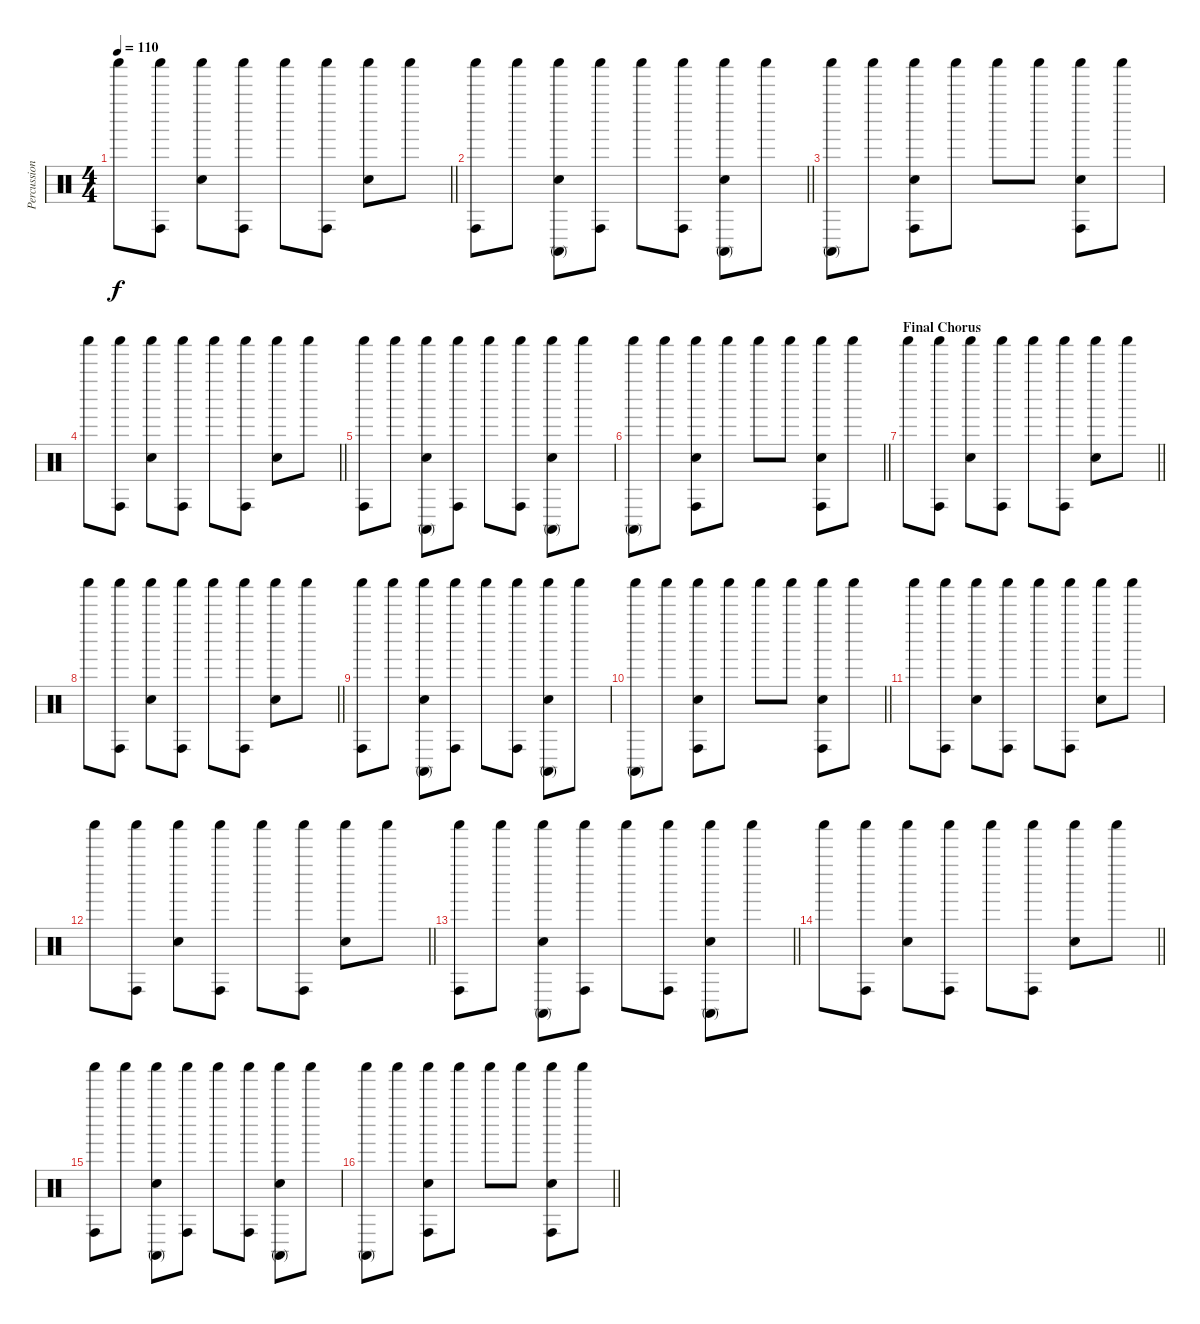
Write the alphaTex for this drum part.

\track ("Percussion" "Percussion") {instrument percussion}
\staff {score}
\articulation defaults
\ts (4 4)
\tempo 110
\clef neutral
\barLineRight lightlight
\ks c "Shaker (hit)".8{dy f}
("Conga high (hit)" "Shaker (hit)").8 ("Hand Clap (hit)" "Shaker (hit)").8 ("Conga high (hit)" "Shaker (hit)").8 "Shaker (hit)".8 ("Conga high (hit)" "Shaker (hit)").8 ("Hand Clap (hit)" "Shaker (hit)").8 "Shaker (hit)".8 |
\barLineRight lightlight
("Conga high (hit)" "Shaker (hit)").8 "Shaker (hit)".8 ("Conga high (mute)" "Hand Clap (hit)" "Shaker (hit)").8 ("Conga high (hit)" "Shaker (hit)").8 "Shaker (hit)".8 ("Conga high (hit)" "Shaker (hit)").8 ("Conga high (mute)" "Hand Clap (hit)" "Shaker (hit)").8 "Shaker (hit)".8 |
("Conga high (mute)" "Shaker (hit)").8 "Shaker (hit)".8 ("Conga high (hit)" "Hand Clap (hit)" "Shaker (hit)").8 "Shaker (hit)".8 "Shaker (hit)".8 "Shaker (hit)".8 ("Conga high (hit)" "Hand Clap (hit)" "Shaker (hit)").8 "Shaker (hit)".8 |
\barLineRight lightlight "Shaker (hit)".8
("Conga high (hit)" "Shaker (hit)").8 ("Hand Clap (hit)" "Shaker (hit)").8 ("Conga high (hit)" "Shaker (hit)").8 "Shaker (hit)".8 ("Conga high (hit)" "Shaker (hit)").8 ("Hand Clap (hit)" "Shaker (hit)").8 "Shaker (hit)".8 |
("Conga high (hit)" "Shaker (hit)").8 "Shaker (hit)".8 ("Conga high (mute)" "Hand Clap (hit)" "Shaker (hit)").8 ("Conga high (hit)" "Shaker (hit)").8 "Shaker (hit)".8 ("Conga high (hit)" "Shaker (hit)").8 ("Conga high (mute)" "Hand Clap (hit)" "Shaker (hit)").8 "Shaker (hit)".8 |
\barLineRight lightlight
("Conga high (mute)" "Shaker (hit)").8 "Shaker (hit)".8 ("Conga high (hit)" "Hand Clap (hit)" "Shaker (hit)").8 "Shaker (hit)".8 "Shaker (hit)".8 "Shaker (hit)".8 ("Conga high (hit)" "Hand Clap (hit)" "Shaker (hit)").8 "Shaker (hit)".8 |
\section ("" "Final Chorus")
\barLineRight lightlight "Shaker (hit)".8
("Conga high (hit)" "Shaker (hit)").8 ("Hand Clap (hit)" "Shaker (hit)").8 ("Conga high (hit)" "Shaker (hit)").8 "Shaker (hit)".8 ("Conga high (hit)" "Shaker (hit)").8 ("Hand Clap (hit)" "Shaker (hit)").8 "Shaker (hit)".8 |
\barLineRight lightlight "Shaker (hit)".8
("Conga high (hit)" "Shaker (hit)").8 ("Hand Clap (hit)" "Shaker (hit)").8 ("Conga high (hit)" "Shaker (hit)").8 "Shaker (hit)".8 ("Conga high (hit)" "Shaker (hit)").8 ("Hand Clap (hit)" "Shaker (hit)").8 "Shaker (hit)".8 |
("Conga high (hit)" "Shaker (hit)").8 "Shaker (hit)".8 ("Conga high (mute)" "Hand Clap (hit)" "Shaker (hit)").8 ("Conga high (hit)" "Shaker (hit)").8 "Shaker (hit)".8 ("Conga high (hit)" "Shaker (hit)").8 ("Conga high (mute)" "Hand Clap (hit)" "Shaker (hit)").8 "Shaker (hit)".8 |
\barLineRight lightlight
("Conga high (mute)" "Shaker (hit)").8 "Shaker (hit)".8 ("Conga high (hit)" "Hand Clap (hit)" "Shaker (hit)").8 "Shaker (hit)".8 "Shaker (hit)".8 "Shaker (hit)".8 ("Conga high (hit)" "Hand Clap (hit)" "Shaker (hit)").8 "Shaker (hit)".8 |
"Shaker (hit)".8 ("Conga high (hit)" "Shaker (hit)").8 ("Hand Clap (hit)" "Shaker (hit)").8 ("Conga high (hit)" "Shaker (hit)").8 "Shaker (hit)".8 ("Conga high (hit)" "Shaker (hit)").8 ("Hand Clap (hit)" "Shaker (hit)").8 "Shaker (hit)".8 |
\barLineRight lightlight "Shaker (hit)".8
("Conga high (hit)" "Shaker (hit)").8 ("Hand Clap (hit)" "Shaker (hit)").8 ("Conga high (hit)" "Shaker (hit)").8 "Shaker (hit)".8 ("Conga high (hit)" "Shaker (hit)").8 ("Hand Clap (hit)" "Shaker (hit)").8 "Shaker (hit)".8 |
\barLineRight lightlight
("Conga high (hit)" "Shaker (hit)").8 "Shaker (hit)".8 ("Conga high (mute)" "Hand Clap (hit)" "Shaker (hit)").8 ("Conga high (hit)" "Shaker (hit)").8 "Shaker (hit)".8 ("Conga high (hit)" "Shaker (hit)").8 ("Conga high (mute)" "Hand Clap (hit)" "Shaker (hit)").8 "Shaker (hit)".8 |
\barLineRight lightlight "Shaker (hit)".8
("Conga high (hit)" "Shaker (hit)").8 ("Hand Clap (hit)" "Shaker (hit)").8 ("Conga high (hit)" "Shaker (hit)").8 "Shaker (hit)".8 ("Conga high (hit)" "Shaker (hit)").8 ("Hand Clap (hit)" "Shaker (hit)").8 "Shaker (hit)".8 |
("Conga high (hit)" "Shaker (hit)").8 "Shaker (hit)".8 ("Conga high (mute)" "Hand Clap (hit)" "Shaker (hit)").8 ("Conga high (hit)" "Shaker (hit)").8 "Shaker (hit)".8 ("Conga high (hit)" "Shaker (hit)").8 ("Conga high (mute)" "Hand Clap (hit)" "Shaker (hit)").8 "Shaker (hit)".8 |
\barLineRight lightlight
("Conga high (mute)" "Shaker (hit)").8 "Shaker (hit)".8 ("Conga high (hit)" "Hand Clap (hit)" "Shaker (hit)").8 "Shaker (hit)".8 "Shaker (hit)".8 "Shaker (hit)".8 ("Conga high (hit)" "Hand Clap (hit)" "Shaker (hit)").8 "Shaker (hit)".8
